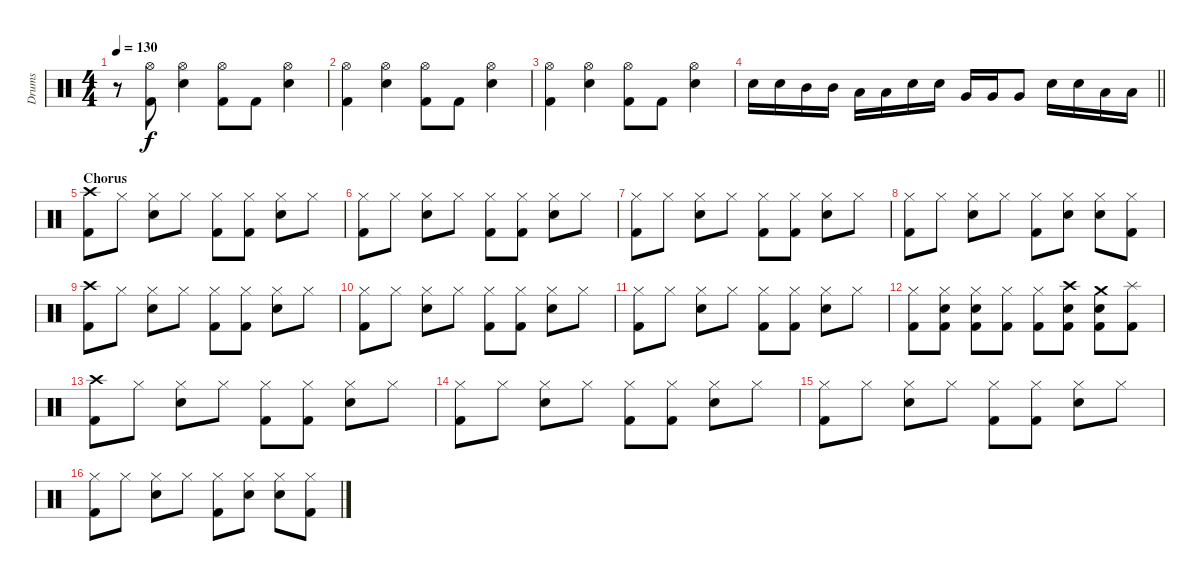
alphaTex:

\track ("Drums" "Drums") {instrument percussion}
\staff {score}
\articulation defaults
\ts (4 4)
\tempo 130
\clef neutral
\ks c
r.8{dy f} ("Hi-Hat (open)" "Kick (hit) 2").8 ("Hi-Hat (open)" "Electric Snare (hit)").4 ("Hi-Hat (open)" "Kick (hit) 2").8 "Kick (hit) 2".8 ("Hi-Hat (open)" "Electric Snare (hit)").4 |
("Hi-Hat (open)" "Kick (hit) 2").4 ("Hi-Hat (open)" "Electric Snare (hit)").4 ("Hi-Hat (open)" "Kick (hit) 2").8 "Kick (hit) 2".8 ("Hi-Hat (open)" "Electric Snare (hit)").4 |
("Hi-Hat (open)" "Kick (hit) 2").4 ("Hi-Hat (open)" "Electric Snare (hit)").4 ("Hi-Hat (open)" "Kick (hit) 2").8 "Kick (hit) 2".8 ("Hi-Hat (open)" "Electric Snare (hit)").4 |
\barLineRight lightlight "Electric Snare (hit)".16 "Electric Snare (hit)".16 "Mid Tom (hit)".16 "Mid Tom (hit)".16 "Low Tom (hit)".16 "Low Tom (hit)".16 "Electric Snare (hit)".16 "Electric Snare (hit)".16 "Very Low Tom (hit)".16 "Very Low Tom (hit)".16 "Very Low Tom (hit)".8 "Electric Snare (hit)".16 "Electric Snare (hit)".16 "Low Floor Tom (hit)".16 "Low Floor Tom (hit)".16
|
\section ("" "Chorus")
("Crash high (hit)" "Kick (hit) 2").8 "Hi-Hat (closed)".8 ("Hi-Hat (closed)" "Electric Snare (hit)").8 "Hi-Hat (closed)".8 ("Hi-Hat (closed)" "Kick (hit) 2").8 ("Hi-Hat (closed)" "Kick (hit) 2").8 ("Hi-Hat (closed)" "Electric Snare (hit)").8 "Hi-Hat (closed)".8 |
("Hi-Hat (closed)" "Kick (hit) 2").8 "Hi-Hat (closed)".8 ("Hi-Hat (closed)" "Electric Snare (hit)").8 "Hi-Hat (closed)".8 ("Hi-Hat (closed)" "Kick (hit) 2").8 ("Hi-Hat (closed)" "Kick (hit) 2").8 ("Hi-Hat (closed)" "Electric Snare (hit)").8 "Hi-Hat (closed)".8 |
("Hi-Hat (closed)" "Kick (hit) 2").8 "Hi-Hat (closed)".8 ("Hi-Hat (closed)" "Electric Snare (hit)").8 "Hi-Hat (closed)".8 ("Hi-Hat (closed)" "Kick (hit) 2").8 ("Hi-Hat (closed)" "Kick (hit) 2").8 ("Hi-Hat (closed)" "Electric Snare (hit)").8 "Hi-Hat (closed)".8 |
("Hi-Hat (closed)" "Kick (hit) 2").8 "Hi-Hat (closed)".8 ("Hi-Hat (closed)" "Electric Snare (hit)").8 "Hi-Hat (closed)".8 ("Hi-Hat (closed)" "Kick (hit) 2").8 ("Hi-Hat (closed)" "Electric Snare (hit)").8 ("Hi-Hat (closed)" "Electric Snare (hit)").8 ("Hi-Hat (closed)" "Kick (hit) 2").8 |
("Crash high (hit)" "Kick (hit) 2").8 "Hi-Hat (closed)".8 ("Hi-Hat (closed)" "Electric Snare (hit)").8 "Hi-Hat (closed)".8 ("Hi-Hat (closed)" "Kick (hit) 2").8 ("Hi-Hat (closed)" "Kick (hit) 2").8 ("Hi-Hat (closed)" "Electric Snare (hit)").8 "Hi-Hat (closed)".8 |
("Hi-Hat (closed)" "Kick (hit) 2").8 "Hi-Hat (closed)".8 ("Hi-Hat (closed)" "Electric Snare (hit)").8 "Hi-Hat (closed)".8 ("Hi-Hat (closed)" "Kick (hit) 2").8 ("Hi-Hat (closed)" "Kick (hit) 2").8 ("Hi-Hat (closed)" "Electric Snare (hit)").8 "Hi-Hat (closed)".8 |
("Hi-Hat (closed)" "Kick (hit) 2").8 "Hi-Hat (closed)".8 ("Hi-Hat (closed)" "Electric Snare (hit)").8 "Hi-Hat (closed)".8 ("Hi-Hat (closed)" "Kick (hit) 2").8 ("Hi-Hat (closed)" "Kick (hit) 2").8 ("Hi-Hat (closed)" "Electric Snare (hit)").8 "Hi-Hat (closed)".8 |
("Hi-Hat (closed)" "Kick (hit) 2").8 ("Hi-Hat (closed)" "Electric Snare (hit)" "Kick (hit) 2").8 ("Hi-Hat (closed)" "Electric Snare (hit)" "Kick (hit) 2").8 ("Hi-Hat (closed)" "Kick (hit) 2").8 ("Hi-Hat (closed)" "Kick (hit) 2").8 ("Crash high (hit)" "Electric Snare (hit)" "Kick (hit) 2").8 ("Crash medium (hit)" "Electric Snare (hit)" "Kick (hit) 2").8 ("Splash (hit)" "Kick (hit) 2").8 |
("Crash high (hit)" "Kick (hit) 2").8 "Hi-Hat (closed)".8 ("Hi-Hat (closed)" "Electric Snare (hit)").8 "Hi-Hat (closed)".8 ("Hi-Hat (closed)" "Kick (hit) 2").8 ("Hi-Hat (closed)" "Kick (hit) 2").8 ("Hi-Hat (closed)" "Electric Snare (hit)").8 "Hi-Hat (closed)".8 |
("Hi-Hat (closed)" "Kick (hit) 2").8 "Hi-Hat (closed)".8 ("Hi-Hat (closed)" "Electric Snare (hit)").8 "Hi-Hat (closed)".8 ("Hi-Hat (closed)" "Kick (hit) 2").8 ("Hi-Hat (closed)" "Kick (hit) 2").8 ("Hi-Hat (closed)" "Electric Snare (hit)").8 "Hi-Hat (closed)".8 |
("Hi-Hat (closed)" "Kick (hit) 2").8 "Hi-Hat (closed)".8 ("Hi-Hat (closed)" "Electric Snare (hit)").8 "Hi-Hat (closed)".8 ("Hi-Hat (closed)" "Kick (hit) 2").8 ("Hi-Hat (closed)" "Kick (hit) 2").8 ("Hi-Hat (closed)" "Electric Snare (hit)").8 "Hi-Hat (closed)".8 |
("Hi-Hat (closed)" "Kick (hit) 2").8 "Hi-Hat (closed)".8 ("Hi-Hat (closed)" "Electric Snare (hit)").8 "Hi-Hat (closed)".8 ("Hi-Hat (closed)" "Kick (hit) 2").8 ("Hi-Hat (closed)" "Electric Snare (hit)").8 ("Hi-Hat (closed)" "Electric Snare (hit)").8 ("Hi-Hat (closed)" "Kick (hit) 2").8
